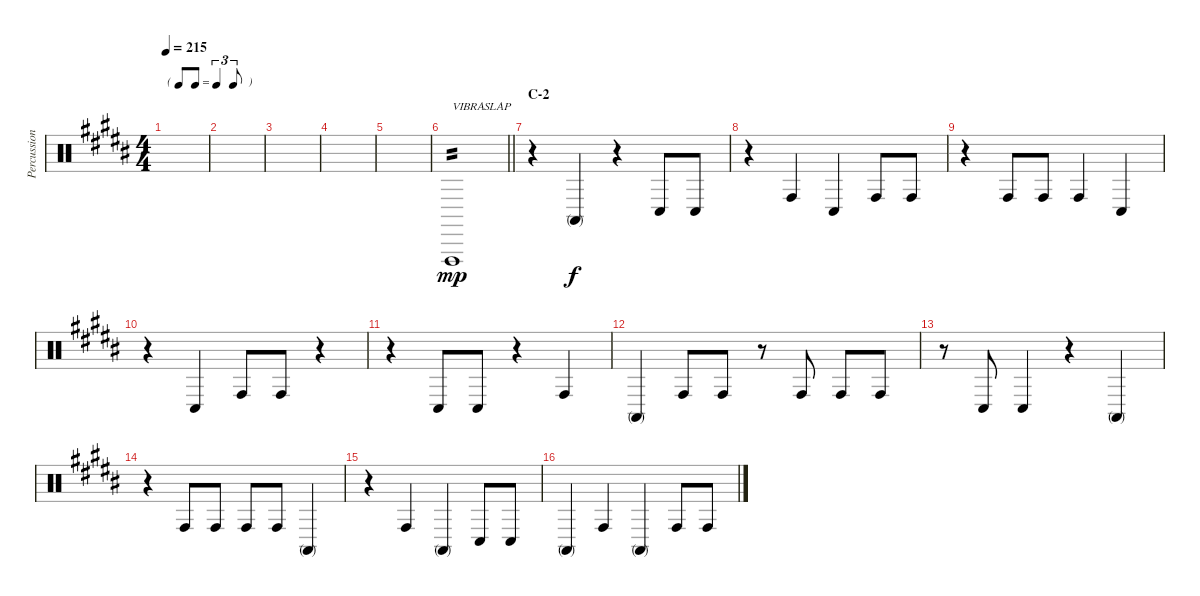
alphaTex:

\track ("Percussion A (Tainaka Ritsu)" "Percussion") {instrument percussion}
\staff {score}
\articulation defaults
\ts (4 4)
\tf triplet8th
\tempo 215
\clef neutral
\ks b
|
|
|
|
|
\barLineRight lightlight "Vibraslap (hit)".1{txt "VIBRASLAP" tp 2 dy mp}
|
\section ("" "C-2")
r.4 "Conga high (mute)".4{dy f} r.4 "Conga low (hit)".8 "Conga low (hit)".8 |
r.4 "Conga high (hit)".4 "Conga low (hit)".4 "Conga high (hit)".8 "Conga high (hit)".8 |
r.4 "Conga high (hit)".8 "Conga high (hit)".8 "Conga high (hit)".4 "Conga low (hit)".4 |
r.4 "Conga low (hit)".4 "Conga high (hit)".8 "Conga high (hit)".8 r.4 |
r.4 "Conga low (hit)".8 "Conga low (hit)".8 r.4 "Conga high (hit)".4 |
"Conga high (mute)".4 "Conga high (hit)".8 "Conga high (hit)".8 r.8 "Conga high (hit)".8 "Conga high (hit)".8 "Conga high (hit)".8 |
r.8 "Conga low (hit)".8 "Conga low (hit)".4 r.4 "Conga high (mute)".4 |
r.4 "Conga high (hit)".8 "Conga high (hit)".8 "Conga high (hit)".8 "Conga high (hit)".8 "Conga high (mute)".4 |
r.4 "Conga high (hit)".4 "Conga high (mute)".4 "Conga low (hit)".8 "Conga low (hit)".8 |
"Conga high (mute)".4 "Conga high (hit)".4 "Conga high (mute)".4 "Conga high (hit)".8 "Conga high (hit)".8
